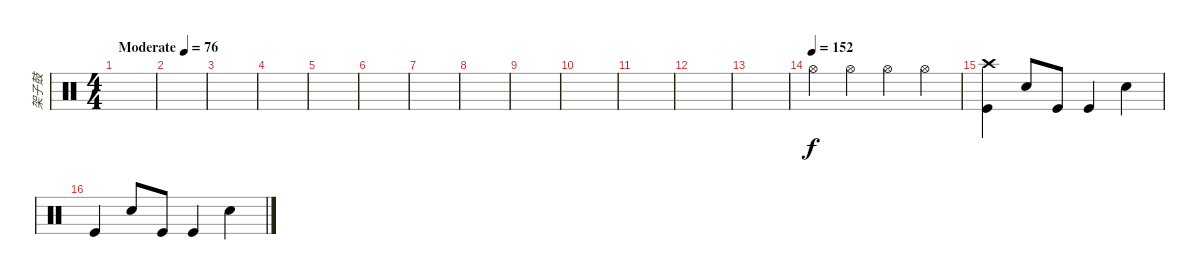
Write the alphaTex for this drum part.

\track ("架子鼓" "架子鼓") {instrument percussion}
\staff {score}
\articulation defaults
\ts (4 4)
\tempo (76 "Moderate")
\clef neutral
\ks c
|
|
|
|
|
|
|
|
|
|
|
|
|
\tempo (152)
"Hi-Hat (open)".4 "Hi-Hat (open)".4 "Hi-Hat (open)".4 "Hi-Hat (open)".4 |
("Crash high (hit)" "Kick (hit)").4 "Electric Snare (hit)".8 "Kick (hit)".8 "Kick (hit)".4 "Electric Snare (hit)".4 |
"Kick (hit)".4 "Electric Snare (hit)".8 "Kick (hit)".8 "Kick (hit)".4 "Electric Snare (hit)".4
